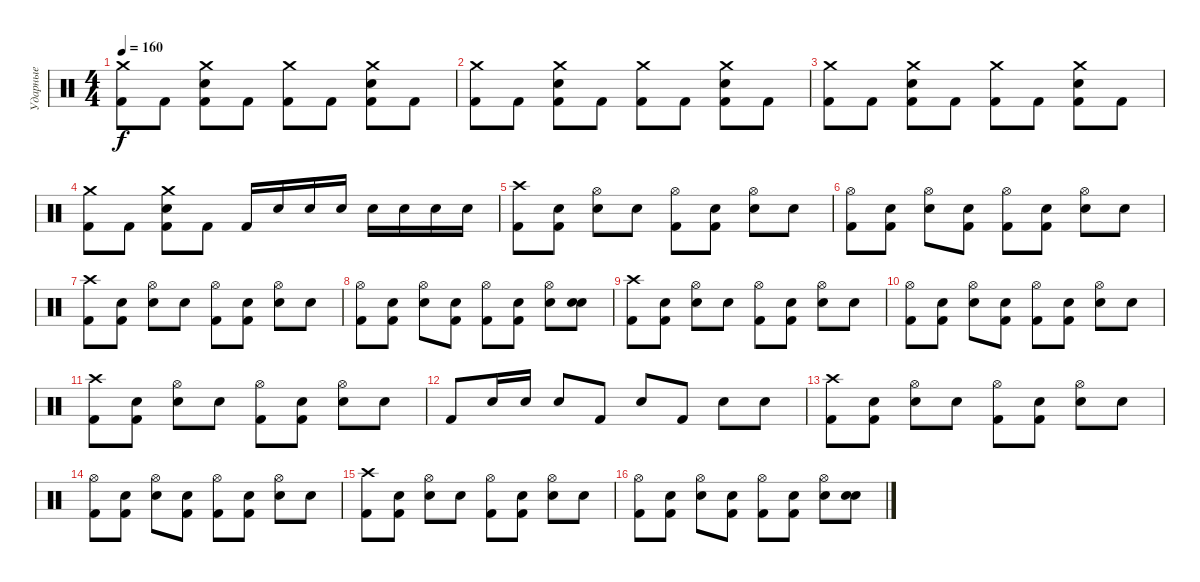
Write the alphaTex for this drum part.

\track ("Ударные" "Ударные") {instrument percussion}
\staff {score}
\articulation defaults
\ts (4 4)
\tempo 160
\clef neutral
\ks c
("Crash medium (hit)" "Kick (hit) 2").8{dy f} "Kick (hit) 2".8 ("Crash medium (hit)" "Electric Snare (hit)" "Kick (hit) 2").8 "Kick (hit) 2".8 ("Crash medium (hit)" "Kick (hit) 2").8 "Kick (hit) 2".8 ("Crash medium (hit)" "Electric Snare (hit)" "Kick (hit) 2").8 "Kick (hit) 2".8 |
("Crash medium (hit)" "Kick (hit) 2").8 "Kick (hit) 2".8 ("Crash medium (hit)" "Electric Snare (hit)" "Kick (hit) 2").8 "Kick (hit) 2".8 ("Crash medium (hit)" "Kick (hit) 2").8 "Kick (hit) 2".8 ("Crash medium (hit)" "Electric Snare (hit)" "Kick (hit) 2").8 "Kick (hit) 2".8 |
("Crash medium (hit)" "Kick (hit) 2").8 "Kick (hit) 2".8 ("Crash medium (hit)" "Electric Snare (hit)" "Kick (hit) 2").8 "Kick (hit) 2".8 ("Crash medium (hit)" "Kick (hit) 2").8 "Kick (hit) 2".8 ("Crash medium (hit)" "Electric Snare (hit)" "Kick (hit) 2").8 "Kick (hit) 2".8 |
("Crash medium (hit)" "Kick (hit) 2").8 "Kick (hit) 2".8 ("Crash medium (hit)" "Electric Snare (hit)" "Kick (hit) 2").8 "Kick (hit) 2".8 "Kick (hit) 2".16 "Electric Snare (hit)".16 "Electric Snare (hit)".16 "Electric Snare (hit)".16 "Electric Snare (hit)".16 "Electric Snare (hit)".16 "Electric Snare (hit)".16 "Electric Snare (hit)".16 |
("Crash high (hit)" "Kick (hit) 2").8 ("Snare (hit)" "Kick (hit) 2").8 ("Hi-Hat (open)" "Electric Snare (hit)").8 "Snare (hit)".8 ("Hi-Hat (open)" "Kick (hit) 2").8 ("Snare (hit)" "Kick (hit) 2").8 ("Hi-Hat (open)" "Electric Snare (hit)").8 "Snare (hit)".8 |
("Hi-Hat (open)" "Kick (hit) 2").8 ("Snare (hit)" "Kick (hit) 2").8 ("Hi-Hat (open)" "Electric Snare (hit)").8 ("Snare (hit)" "Kick (hit) 2").8 ("Hi-Hat (open)" "Kick (hit) 2").8 ("Snare (hit)" "Kick (hit) 2").8 ("Hi-Hat (open)" "Electric Snare (hit)").8 "Snare (hit)".8 |
("Crash high (hit)" "Kick (hit) 2").8 ("Snare (hit)" "Kick (hit) 2").8 ("Hi-Hat (open)" "Electric Snare (hit)").8 "Snare (hit)".8 ("Hi-Hat (open)" "Kick (hit) 2").8 ("Snare (hit)" "Kick (hit) 2").8 ("Hi-Hat (open)" "Electric Snare (hit)").8 "Snare (hit)".8 |
("Hi-Hat (open)" "Kick (hit) 2").8 ("Snare (hit)" "Kick (hit) 2").8 ("Hi-Hat (open)" "Electric Snare (hit)").8 ("Snare (hit)" "Kick (hit) 2").8 ("Hi-Hat (open)" "Kick (hit) 2").8 ("Snare (hit)" "Kick (hit) 2").8 ("Hi-Hat (open)" "Electric Snare (hit)").8 ("Snare (hit)" "Electric Snare (hit)").8 |
("Crash high (hit)" "Kick (hit) 2").8 ("Snare (hit)" "Kick (hit) 2").8 ("Hi-Hat (open)" "Electric Snare (hit)").8 "Snare (hit)".8 ("Hi-Hat (open)" "Kick (hit) 2").8 ("Snare (hit)" "Kick (hit) 2").8 ("Hi-Hat (open)" "Electric Snare (hit)").8 "Snare (hit)".8 |
("Hi-Hat (open)" "Kick (hit) 2").8 ("Snare (hit)" "Kick (hit) 2").8 ("Hi-Hat (open)" "Electric Snare (hit)").8 ("Snare (hit)" "Kick (hit) 2").8 ("Hi-Hat (open)" "Kick (hit) 2").8 ("Snare (hit)" "Kick (hit) 2").8 ("Hi-Hat (open)" "Electric Snare (hit)").8 "Snare (hit)".8 |
("Crash high (hit)" "Kick (hit) 2").8 ("Snare (hit)" "Kick (hit) 2").8 ("Hi-Hat (open)" "Electric Snare (hit)").8 "Snare (hit)".8 ("Hi-Hat (open)" "Kick (hit) 2").8 ("Snare (hit)" "Kick (hit) 2").8 ("Hi-Hat (open)" "Electric Snare (hit)").8 "Snare (hit)".8 |
"Kick (hit) 2".8 "Electric Snare (hit)".16 "Electric Snare (hit)".16 "Electric Snare (hit)".8 "Kick (hit) 2".8 "Electric Snare (hit)".8 "Kick (hit) 2".8 "Electric Snare (hit)".8 "Electric Snare (hit)".8 |
("Crash high (hit)" "Kick (hit) 2").8 ("Snare (hit)" "Kick (hit) 2").8 ("Hi-Hat (open)" "Electric Snare (hit)").8 "Snare (hit)".8 ("Hi-Hat (open)" "Kick (hit) 2").8 ("Snare (hit)" "Kick (hit) 2").8 ("Hi-Hat (open)" "Electric Snare (hit)").8 "Snare (hit)".8 |
("Hi-Hat (open)" "Kick (hit) 2").8 ("Snare (hit)" "Kick (hit) 2").8 ("Hi-Hat (open)" "Electric Snare (hit)").8 ("Snare (hit)" "Kick (hit) 2").8 ("Hi-Hat (open)" "Kick (hit) 2").8 ("Snare (hit)" "Kick (hit) 2").8 ("Hi-Hat (open)" "Electric Snare (hit)").8 "Snare (hit)".8 |
("Crash high (hit)" "Kick (hit) 2").8 ("Snare (hit)" "Kick (hit) 2").8 ("Hi-Hat (open)" "Electric Snare (hit)").8 "Snare (hit)".8 ("Hi-Hat (open)" "Kick (hit) 2").8 ("Snare (hit)" "Kick (hit) 2").8 ("Hi-Hat (open)" "Electric Snare (hit)").8 "Snare (hit)".8 |
("Hi-Hat (open)" "Kick (hit) 2").8 ("Snare (hit)" "Kick (hit) 2").8 ("Hi-Hat (open)" "Electric Snare (hit)").8 ("Snare (hit)" "Kick (hit) 2").8 ("Hi-Hat (open)" "Kick (hit) 2").8 ("Snare (hit)" "Kick (hit) 2").8 ("Hi-Hat (open)" "Electric Snare (hit)").8 ("Snare (hit)" "Electric Snare (hit)").8
